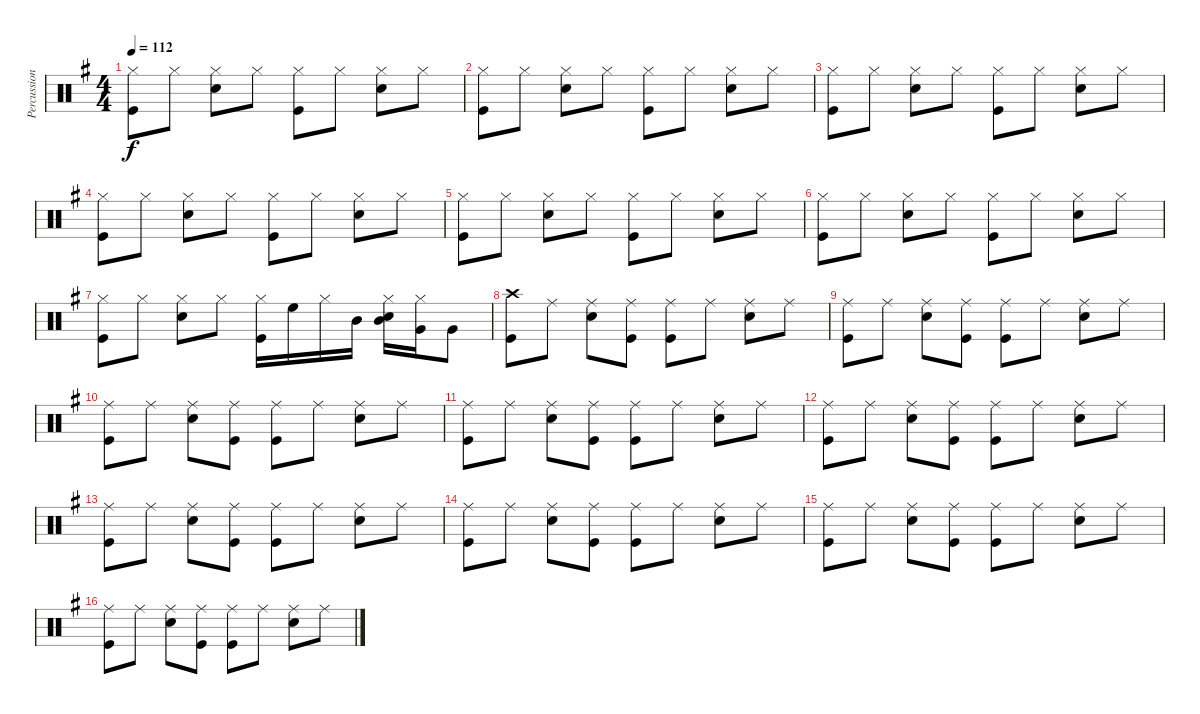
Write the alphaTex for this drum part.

\track ("Percussion" "Percussion") {instrument percussion}
\staff {score}
\articulation defaults
\ts (4 4)
\tempo 112
\clef neutral
\ks g
("Hi-Hat (closed)" "Kick (hit)").8{dy f} "Hi-Hat (closed)".8 ("Hi-Hat (closed)" "Snare (hit) 2").8 "Hi-Hat (closed)".8 ("Hi-Hat (closed)" "Kick (hit)").8 "Hi-Hat (closed)".8 ("Hi-Hat (closed)" "Snare (hit) 2").8 "Hi-Hat (closed)".8 |
("Hi-Hat (closed)" "Kick (hit)").8 "Hi-Hat (closed)".8 ("Hi-Hat (closed)" "Snare (hit) 2").8 "Hi-Hat (closed)".8 ("Hi-Hat (closed)" "Kick (hit)").8 "Hi-Hat (closed)".8 ("Hi-Hat (closed)" "Snare (hit) 2").8 "Hi-Hat (closed)".8 |
("Hi-Hat (closed)" "Kick (hit)").8 "Hi-Hat (closed)".8 ("Hi-Hat (closed)" "Snare (hit) 2").8 "Hi-Hat (closed)".8 ("Hi-Hat (closed)" "Kick (hit)").8 "Hi-Hat (closed)".8 ("Hi-Hat (closed)" "Snare (hit) 2").8 "Hi-Hat (closed)".8 |
("Hi-Hat (closed)" "Kick (hit)").8 "Hi-Hat (closed)".8 ("Hi-Hat (closed)" "Snare (hit) 2").8 "Hi-Hat (closed)".8 ("Hi-Hat (closed)" "Kick (hit)").8 "Hi-Hat (closed)".8 ("Hi-Hat (closed)" "Snare (hit) 2").8 "Hi-Hat (closed)".8 |
("Hi-Hat (closed)" "Kick (hit)").8 "Hi-Hat (closed)".8 ("Hi-Hat (closed)" "Snare (hit) 2").8 "Hi-Hat (closed)".8 ("Hi-Hat (closed)" "Kick (hit)").8 "Hi-Hat (closed)".8 ("Hi-Hat (closed)" "Snare (hit) 2").8 "Hi-Hat (closed)".8 |
("Hi-Hat (closed)" "Kick (hit)").8 "Hi-Hat (closed)".8 ("Hi-Hat (closed)" "Snare (hit) 2").8 "Hi-Hat (closed)".8 ("Hi-Hat (closed)" "Kick (hit)").8 "Hi-Hat (closed)".8 ("Hi-Hat (closed)" "Snare (hit) 2").8 "Hi-Hat (closed)".8 |
("Hi-Hat (closed)" "Kick (hit)").8 "Hi-Hat (closed)".8 ("Hi-Hat (closed)" "Snare (hit) 2").8 "Hi-Hat (closed)".8 ("Hi-Hat (closed)" "Kick (hit)").16 "High Floor Tom (hit)".16 "Hi-Hat (closed)".16 "Mid Tom (hit)".16 ("Hi-Hat (closed)" "Mid Tom (hit)" "Snare (hit) 2").16 ("Hi-Hat (closed)" "Very Low Tom (hit)").16 "Very Low Tom (hit)".8 |
("Crash high (hit)" "Kick (hit)").8 "Ride (middle)".8 ("Ride (middle)" "Snare (hit) 2").8 ("Ride (middle)" "Kick (hit)").8 ("Ride (middle)" "Kick (hit)").8 "Ride (middle)".8 ("Ride (middle)" "Snare (hit) 2").8 "Ride (middle)".8 |
("Ride (middle)" "Kick (hit)").8 "Ride (middle)".8 ("Ride (middle)" "Snare (hit) 2").8 ("Ride (middle)" "Kick (hit)").8 ("Ride (middle)" "Kick (hit)").8 "Ride (middle)".8 ("Ride (middle)" "Snare (hit) 2").8 "Ride (middle)".8 |
("Ride (middle)" "Kick (hit)").8 "Ride (middle)".8 ("Ride (middle)" "Snare (hit) 2").8 ("Ride (middle)" "Kick (hit)").8 ("Ride (middle)" "Kick (hit)").8 "Ride (middle)".8 ("Ride (middle)" "Snare (hit) 2").8 "Ride (middle)".8 |
("Ride (middle)" "Kick (hit)").8 "Ride (middle)".8 ("Ride (middle)" "Snare (hit) 2").8 ("Ride (middle)" "Kick (hit)").8 ("Ride (middle)" "Kick (hit)").8 "Ride (middle)".8 ("Ride (middle)" "Snare (hit) 2").8 "Ride (middle)".8 |
("Ride (middle)" "Kick (hit)").8 "Ride (middle)".8 ("Ride (middle)" "Snare (hit) 2").8 ("Ride (middle)" "Kick (hit)").8 ("Ride (middle)" "Kick (hit)").8 "Ride (middle)".8 ("Ride (middle)" "Snare (hit) 2").8 "Ride (middle)".8 |
("Ride (middle)" "Kick (hit)").8 "Ride (middle)".8 ("Ride (middle)" "Snare (hit) 2").8 ("Ride (middle)" "Kick (hit)").8 ("Ride (middle)" "Kick (hit)").8 "Ride (middle)".8 ("Ride (middle)" "Snare (hit) 2").8 "Ride (middle)".8 |
("Ride (middle)" "Kick (hit)").8 "Ride (middle)".8 ("Ride (middle)" "Snare (hit) 2").8 ("Ride (middle)" "Kick (hit)").8 ("Ride (middle)" "Kick (hit)").8 "Ride (middle)".8 ("Ride (middle)" "Snare (hit) 2").8 "Ride (middle)".8 |
("Ride (middle)" "Kick (hit)").8 "Ride (middle)".8 ("Ride (middle)" "Snare (hit) 2").8 ("Ride (middle)" "Kick (hit)").8 ("Ride (middle)" "Kick (hit)").8 "Ride (middle)".8 ("Ride (middle)" "Snare (hit) 2").8 "Ride (middle)".8 |
("Ride (middle)" "Kick (hit)").8 "Ride (middle)".8 ("Ride (middle)" "Snare (hit) 2").8 ("Ride (middle)" "Kick (hit)").8 ("Ride (middle)" "Kick (hit)").8 "Ride (middle)".8 ("Ride (middle)" "Snare (hit) 2").8 "Ride (middle)".8
